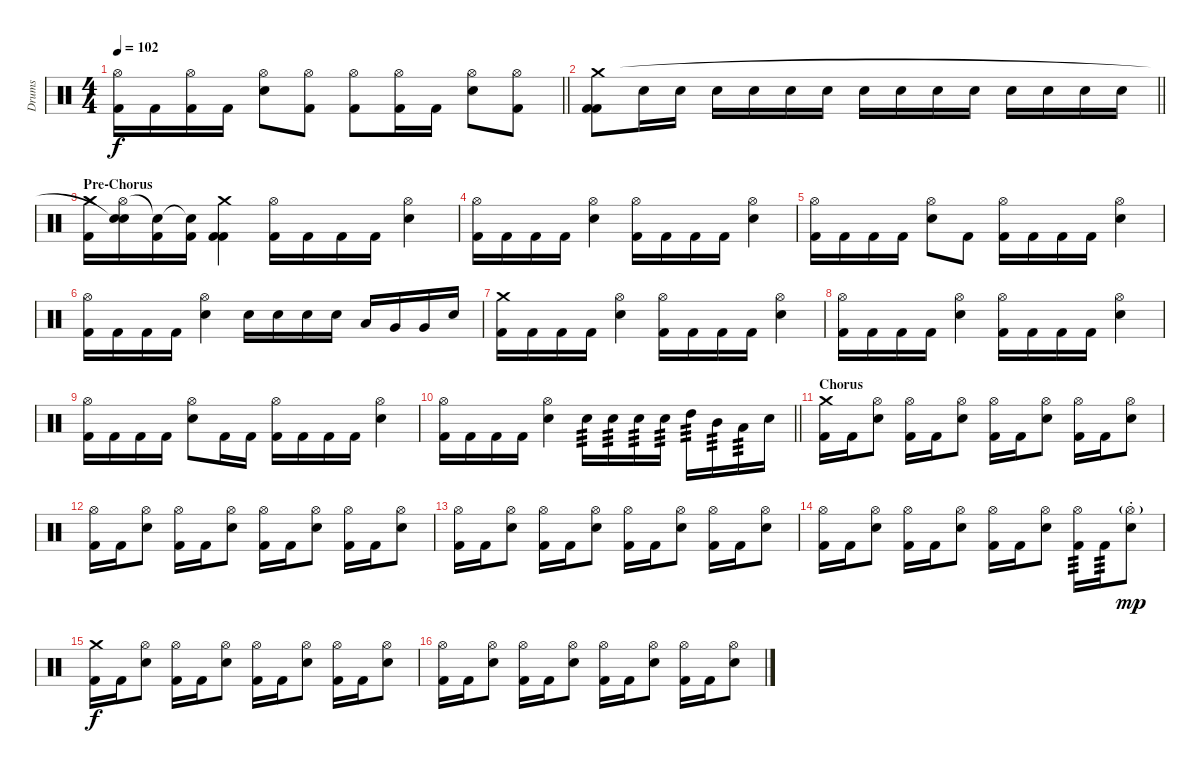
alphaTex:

\track ("Drums" "Drums") {instrument percussion}
\staff {score}
\articulation defaults
\ts (4 4)
\tempo 102
\clef neutral
\barLineRight lightlight
\ks c
("Kick (hit) 2" "Hi-Hat (open)").16{dy f} "Kick (hit) 2".16 ("Kick (hit) 2" "Hi-Hat (open)").16 "Kick (hit) 2".16 ("Snare (hit) 2" "Hi-Hat (open)").8 ("Kick (hit) 2" "Hi-Hat (open)").8 ("Kick (hit) 2" "Hi-Hat (open)").8 ("Kick (hit) 2" "Hi-Hat (open)").16 "Kick (hit) 2".16 ("Snare (hit) 2" "Hi-Hat (open)").8 ("Kick (hit) 2" "Hi-Hat (open)").8 |
\barLineRight lightlight
("Kick (hit) 2" "Kick (hit) 2" "Crash medium (hit)").8 "Snare (hit) 2".16 "Snare (hit) 2".16 "Snare (hit) 2".16 "Snare (hit) 2".16 "Snare (hit) 2".16 "Snare (hit) 2".16 "Snare (hit) 2".16 "Snare (hit) 2".16 "Snare (hit) 2".16 "Snare (hit) 2".16 "Snare (hit) 2".16 "Snare (hit) 2".16 "Snare (hit) 2".16 "Snare (hit) 2".16 |
\section ("" "Pre-Chorus")
("Kick (hit) 2" "Crash medium (hit)").16 ("Snare (hit) 2" "Hi-Hat (open)" "Snare (hit)"{t}).16 ("Kick (hit) 2" "Snare (hit)"{t}).16 ("Kick (hit) 2" "Snare (hit)"{t}).16 ("Kick (hit) 2" "Kick (hit) 2" "Crash medium (hit)").4 ("Kick (hit) 2" "Hi-Hat (open)").16 "Kick (hit) 2".16 "Kick (hit) 2".16 "Kick (hit) 2".16 ("Snare (hit) 2" "Hi-Hat (open)").4 |
("Kick (hit) 2" "Hi-Hat (open)").16 "Kick (hit) 2".16 "Kick (hit) 2".16 "Kick (hit) 2".16 ("Snare (hit) 2" "Hi-Hat (open)").4 ("Kick (hit) 2" "Hi-Hat (open)").16 "Kick (hit) 2".16 "Kick (hit) 2".16 "Kick (hit) 2".16 ("Snare (hit) 2" "Hi-Hat (open)").4 |
("Kick (hit) 2" "Hi-Hat (open)").16 "Kick (hit) 2".16 "Kick (hit) 2".16 "Kick (hit) 2".16 ("Snare (hit) 2" "Hi-Hat (open)").8 "Kick (hit) 2".8 ("Kick (hit) 2" "Hi-Hat (open)").16 "Kick (hit) 2".16 "Kick (hit) 2".16 "Kick (hit) 2".16 ("Snare (hit) 2" "Hi-Hat (open)").4 |
("Kick (hit) 2" "Hi-Hat (open)").16 "Kick (hit) 2".16 "Kick (hit) 2".16 "Kick (hit) 2".16 ("Snare (hit) 2" "Hi-Hat (open)").4 "Snare (hit) 2".16 "Snare (hit) 2".16 "Snare (hit) 2".16 "Snare (hit) 2".16 "Low Tom (hit)".16 "Very Low Tom (hit)".16 "Very Low Tom (hit)".16 "Snare (hit) 2".16 |
("Kick (hit) 2" "Crash medium (hit)").16 "Kick (hit) 2".16 "Kick (hit) 2".16 "Kick (hit) 2".16 ("Snare (hit) 2" "Hi-Hat (open)").4 ("Kick (hit) 2" "Hi-Hat (open)").16 "Kick (hit) 2".16 "Kick (hit) 2".16 "Kick (hit) 2".16 ("Snare (hit) 2" "Hi-Hat (open)").4 |
("Kick (hit) 2" "Hi-Hat (open)").16 "Kick (hit) 2".16 "Kick (hit) 2".16 "Kick (hit) 2".16 ("Snare (hit) 2" "Hi-Hat (open)").4 ("Kick (hit) 2" "Hi-Hat (open)").16 "Kick (hit) 2".16 "Kick (hit) 2".16 "Kick (hit) 2".16 ("Snare (hit) 2" "Hi-Hat (open)").4 |
("Kick (hit) 2" "Hi-Hat (open)").16 "Kick (hit) 2".16 "Kick (hit) 2".16 "Kick (hit) 2".16 ("Snare (hit) 2" "Hi-Hat (open)").8 "Kick (hit) 2".16 "Kick (hit) 2".16 ("Kick (hit) 2" "Hi-Hat (open)").16 "Kick (hit) 2".16 "Kick (hit) 2".16 "Kick (hit) 2".16 ("Snare (hit) 2" "Hi-Hat (open)").4 |
\barLineRight lightlight
("Kick (hit) 2" "Hi-Hat (open)").16 "Kick (hit) 2".16 "Kick (hit) 2".16 "Kick (hit) 2".16 ("Snare (hit) 2" "Hi-Hat (open)").4 "Snare (hit) 2".16{tp 3} "Snare (hit) 2".16{tp 3} "Snare (hit) 2".16{tp 3} "Snare (hit) 2".16{tp 3} "High Tom (hit)".16{tp 3} "Mid Tom (hit)".16{tp 3} "Low Tom (hit)".16{tp 3} "Snare (hit) 2".16 |
\section ("" "Chorus")
("Kick (hit) 2" "Crash medium (hit)").16 "Kick (hit) 2".16 ("Snare (hit) 2" "Hi-Hat (open)").8 ("Kick (hit) 2" "Hi-Hat (open)").16 "Kick (hit) 2".16 ("Snare (hit) 2" "Hi-Hat (open)").8 ("Kick (hit) 2" "Hi-Hat (open)").16 "Kick (hit) 2".16 ("Snare (hit) 2" "Hi-Hat (open)").8 ("Kick (hit) 2" "Hi-Hat (open)").16 "Kick (hit) 2".16 ("Snare (hit) 2" "Hi-Hat (open)").8 |
("Kick (hit) 2" "Hi-Hat (open)").16 "Kick (hit) 2".16 ("Snare (hit) 2" "Hi-Hat (open)").8 ("Kick (hit) 2" "Hi-Hat (open)").16 "Kick (hit) 2".16 ("Snare (hit) 2" "Hi-Hat (open)").8 ("Kick (hit) 2" "Hi-Hat (open)").16 "Kick (hit) 2".16 ("Snare (hit) 2" "Hi-Hat (open)").8 ("Kick (hit) 2" "Hi-Hat (open)").16 "Kick (hit) 2".16 ("Snare (hit) 2" "Hi-Hat (open)").8 |
("Kick (hit) 2" "Hi-Hat (open)").16 "Kick (hit) 2".16 ("Snare (hit) 2" "Hi-Hat (open)").8 ("Kick (hit) 2" "Hi-Hat (open)").16 "Kick (hit) 2".16 ("Snare (hit) 2" "Hi-Hat (open)").8 ("Kick (hit) 2" "Hi-Hat (open)").16 "Kick (hit) 2".16 ("Snare (hit) 2" "Hi-Hat (open)").8 ("Kick (hit) 2" "Hi-Hat (open)").16 "Kick (hit) 2".16 ("Snare (hit) 2" "Hi-Hat (open)").8 |
("Kick (hit) 2" "Hi-Hat (open)").16 "Kick (hit) 2".16 ("Snare (hit) 2" "Hi-Hat (open)").8 ("Kick (hit) 2" "Hi-Hat (open)").16 "Kick (hit) 2".16 ("Snare (hit) 2" "Hi-Hat (open)").8 ("Kick (hit) 2" "Hi-Hat (open)").16 "Kick (hit) 2".16 ("Snare (hit) 2" "Hi-Hat (open)").8 ("Kick (hit) 2" "Hi-Hat (open)").16{tp 3} "Kick (hit) 2".16{tp 3} ("Snare (hit) 2" "Hi-Hat (open)"{g st}).8{dy mp} |
("Kick (hit) 2" "Crash medium (hit)").16{dy f} "Kick (hit) 2".16 ("Snare (hit) 2" "Hi-Hat (open)").8 ("Kick (hit) 2" "Hi-Hat (open)").16 "Kick (hit) 2".16 ("Snare (hit) 2" "Hi-Hat (open)").8 ("Kick (hit) 2" "Hi-Hat (open)").16 "Kick (hit) 2".16 ("Snare (hit) 2" "Hi-Hat (open)").8 ("Kick (hit) 2" "Hi-Hat (open)").16 "Kick (hit) 2".16 ("Snare (hit) 2" "Hi-Hat (open)").8 |
("Kick (hit) 2" "Hi-Hat (open)").16 "Kick (hit) 2".16 ("Snare (hit) 2" "Hi-Hat (open)").8 ("Kick (hit) 2" "Hi-Hat (open)").16 "Kick (hit) 2".16 ("Snare (hit) 2" "Hi-Hat (open)").8 ("Kick (hit) 2" "Hi-Hat (open)").16 "Kick (hit) 2".16 ("Snare (hit) 2" "Hi-Hat (open)").8 ("Kick (hit) 2" "Hi-Hat (open)").16 "Kick (hit) 2".16 ("Snare (hit) 2" "Hi-Hat (open)").8
